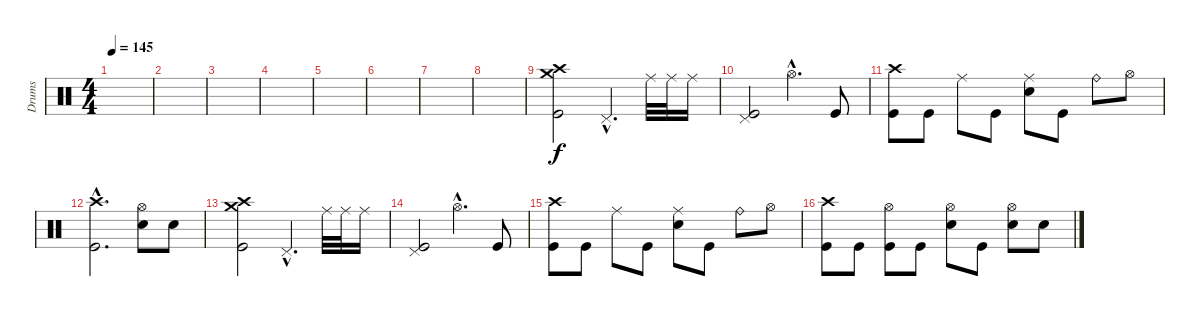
\track ("Drums" "Drums") {instrument percussion}
\staff {score}
\articulation defaults
\ts (4 4)
\tempo 145
\clef neutral
\ks c
|
|
|
|
|
|
|
|
("Crash high (hit)" "Crash medium (hit)" "Kick (hit)").2 "Pedal Hi-Hat (hit)"{hac}.4{d} "Ride (middle)".32 "Ride (middle)".32 "Ride (middle)".16 |
("Pedal Hi-Hat (hit)" "Kick (hit)").2 "Hi-Hat (open)"{hac}.4{d} "Kick (hit)".8 |
("Crash high (hit)" "Kick (hit)").8 "Kick (hit)".8 "Ride (middle)".8 "Kick (hit)".8 ("Ride (middle)" "Electric Snare (hit)").8 "Kick (hit)".8 "Ride (bell)".8 "Hi-Hat (open)".8 |
("Crash high (hit)"{hac} "Kick (hit)"{hac}).2{d} ("Hi-Hat (open)" "Electric Snare (hit)").8 "Electric Snare (hit)".8 |
("Crash high (hit)" "Crash medium (hit)" "Kick (hit)").2 "Pedal Hi-Hat (hit)"{hac}.4{d} "Ride (middle)".32 "Ride (middle)".32 "Ride (middle)".16 |
("Pedal Hi-Hat (hit)" "Kick (hit)").2 "Hi-Hat (open)"{hac}.4{d} "Kick (hit)".8 |
("Crash high (hit)" "Kick (hit)").8 "Kick (hit)".8 "Ride (middle)".8 "Kick (hit)".8 ("Ride (middle)" "Electric Snare (hit)").8 "Kick (hit)".8 "Ride (bell)".8 "Hi-Hat (open)".8 |
("Crash high (hit)" "Kick (hit)").8 "Kick (hit)".8 ("Hi-Hat (open)" "Kick (hit)").8 "Kick (hit)".8 ("Hi-Hat (open)" "Electric Snare (hit)").8 "Kick (hit)".8 ("Hi-Hat (open)" "Electric Snare (hit)").8 "Electric Snare (hit)".8
